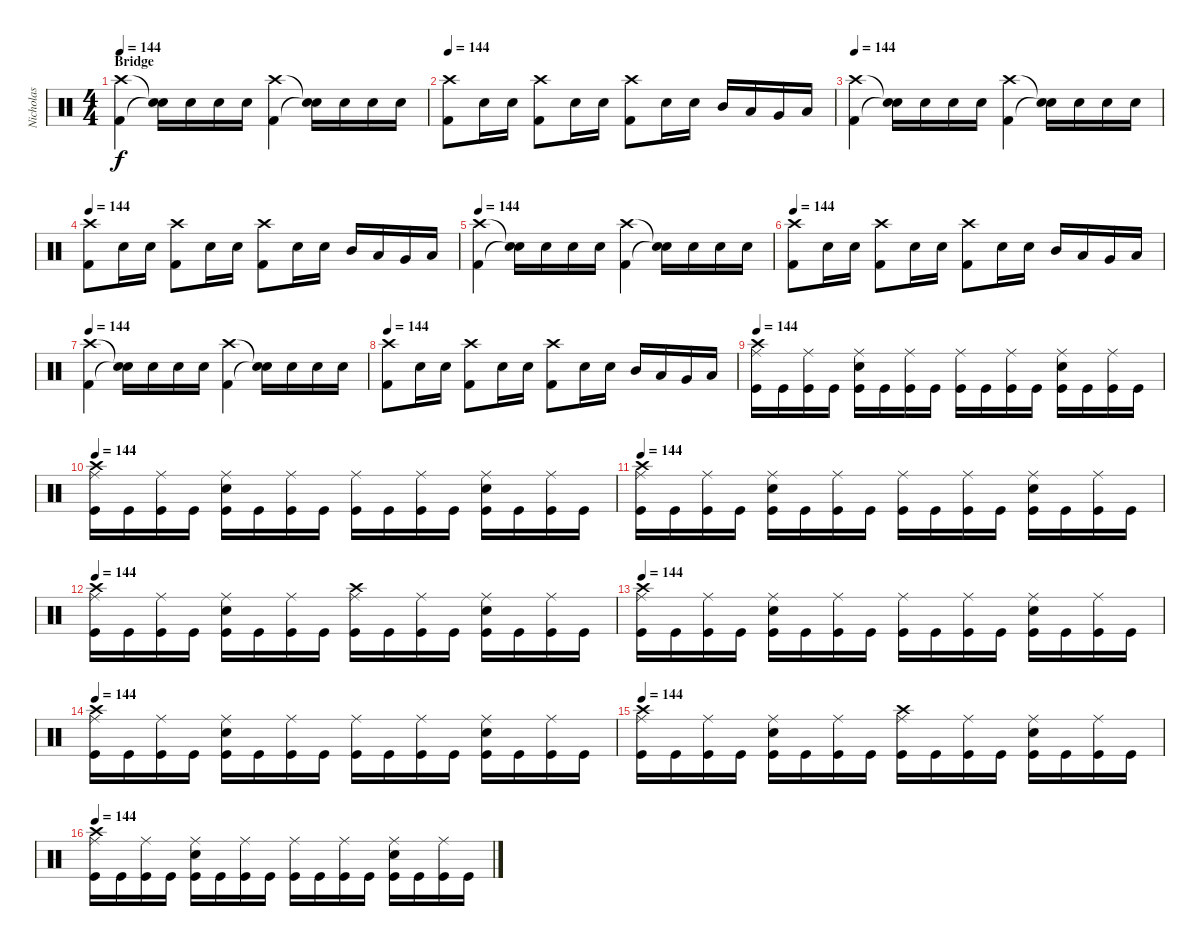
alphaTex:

\track ("Nicholas" "Nicholas") {instrument percussion}
\staff {score}
\articulation defaults
\ts (4 4)
\section ("" "Bridge")
\tempo 144
\clef neutral
\ks c
("Kick (hit) 2" "Crash high (hit)").4{dy f} ("Snare (hit)"{t} "Snare (hit)"{t}).16 "Snare (hit) 2".16 "Snare (hit) 2".16 "Snare (hit) 2".16 ("Kick (hit) 2" "Crash high (hit)").4 ("Snare (hit)"{t} "Snare (hit)"{t}).16 "Snare (hit) 2".16 "Snare (hit) 2".16 "Snare (hit) 2".16 |
\tempo 144
("Kick (hit) 2" "Crash high (hit)").8 "Snare (hit) 2".16 "Snare (hit) 2".16 ("Kick (hit) 2" "Crash high (hit)").8 "Snare (hit) 2".16 "Snare (hit) 2".16 ("Kick (hit) 2" "Crash high (hit)").8 "Snare (hit) 2".16 "Snare (hit) 2".16 "Mid Tom (hit)".16 "Low Tom (hit)".16 "Very Low Tom (hit)".16 "Low Floor Tom (hit)".16 |
\tempo 144
("Kick (hit) 2" "Crash high (hit)").4 ("Snare (hit)"{t} "Snare (hit)"{t}).16 "Snare (hit) 2".16 "Snare (hit) 2".16 "Snare (hit) 2".16 ("Kick (hit) 2" "Crash high (hit)").4 ("Snare (hit)"{t} "Snare (hit)"{t}).16 "Snare (hit) 2".16 "Snare (hit) 2".16 "Snare (hit) 2".16 |
\tempo 144
("Kick (hit) 2" "Crash high (hit)").8 "Snare (hit) 2".16 "Snare (hit) 2".16 ("Kick (hit) 2" "Crash high (hit)").8 "Snare (hit) 2".16 "Snare (hit) 2".16 ("Kick (hit) 2" "Crash high (hit)").8 "Snare (hit) 2".16 "Snare (hit) 2".16 "Mid Tom (hit)".16 "Low Tom (hit)".16 "Very Low Tom (hit)".16 "Low Floor Tom (hit)".16 |
\tempo 144
("Kick (hit) 2" "Crash high (hit)").4 ("Snare (hit)"{t} "Snare (hit)"{t}).16 "Snare (hit) 2".16 "Snare (hit) 2".16 "Snare (hit) 2".16 ("Kick (hit) 2" "Crash high (hit)").4 ("Snare (hit)"{t} "Snare (hit)"{t}).16 "Snare (hit) 2".16 "Snare (hit) 2".16 "Snare (hit) 2".16 |
\tempo 144
("Kick (hit) 2" "Crash high (hit)").8 "Snare (hit) 2".16 "Snare (hit) 2".16 ("Kick (hit) 2" "Crash high (hit)").8 "Snare (hit) 2".16 "Snare (hit) 2".16 ("Kick (hit) 2" "Crash high (hit)").8 "Snare (hit) 2".16 "Snare (hit) 2".16 "Mid Tom (hit)".16 "Low Tom (hit)".16 "Very Low Tom (hit)".16 "Low Floor Tom (hit)".16 |
\tempo 144
("Kick (hit) 2" "Crash high (hit)").4 ("Snare (hit)"{t} "Snare (hit)"{t}).16 "Snare (hit) 2".16 "Snare (hit) 2".16 "Snare (hit) 2".16 ("Kick (hit) 2" "Crash high (hit)").4 ("Snare (hit)"{t} "Snare (hit)"{t}).16 "Snare (hit) 2".16 "Snare (hit) 2".16 "Snare (hit) 2".16 |
\tempo 144
("Kick (hit) 2" "Crash high (hit)").8 "Snare (hit) 2".16 "Snare (hit) 2".16 ("Kick (hit) 2" "Crash high (hit)").8 "Snare (hit) 2".16 "Snare (hit) 2".16 ("Kick (hit) 2" "Crash high (hit)").8 "Snare (hit) 2".16 "Snare (hit) 2".16 "Mid Tom (hit)".16 "Low Tom (hit)".16 "Very Low Tom (hit)".16 "Low Floor Tom (hit)".16 |
\tempo 144
("Kick (hit)" "Ride (middle)" "Crash high (hit)").16 "Kick (hit)".16 ("Kick (hit)" "Ride (middle)").16 "Kick (hit)".16 ("Kick (hit)" "Snare (hit) 2" "Ride (middle)").16 "Kick (hit)".16 ("Kick (hit)" "Ride (middle)").16 "Kick (hit)".16 ("Kick (hit)" "Ride (middle)").16 "Kick (hit)".16 ("Kick (hit)" "Ride (middle)").16 "Kick (hit)".16 ("Kick (hit)" "Snare (hit) 2" "Ride (middle)").16 "Kick (hit)".16 ("Kick (hit)" "Ride (middle)").16 "Kick (hit)".16 |
\tempo 144
("Kick (hit)" "Ride (middle)" "Crash high (hit)").16 "Kick (hit)".16 ("Kick (hit)" "Ride (middle)").16 "Kick (hit)".16 ("Kick (hit)" "Snare (hit) 2" "Ride (middle)").16 "Kick (hit)".16 ("Kick (hit)" "Ride (middle)").16 "Kick (hit)".16 ("Kick (hit)" "Ride (middle)").16 "Kick (hit)".16 ("Kick (hit)" "Ride (middle)").16 "Kick (hit)".16 ("Kick (hit)" "Snare (hit) 2" "Ride (middle)").16 "Kick (hit)".16 ("Kick (hit)" "Ride (middle)").16 "Kick (hit)".16 |
\tempo 144
("Kick (hit)" "Ride (middle)" "Crash high (hit)").16 "Kick (hit)".16 ("Kick (hit)" "Ride (middle)").16 "Kick (hit)".16 ("Kick (hit)" "Snare (hit) 2" "Ride (middle)").16 "Kick (hit)".16 ("Kick (hit)" "Ride (middle)").16 "Kick (hit)".16 ("Kick (hit)" "Ride (middle)").16 "Kick (hit)".16 ("Kick (hit)" "Ride (middle)").16 "Kick (hit)".16 ("Kick (hit)" "Snare (hit) 2" "Ride (middle)").16 "Kick (hit)".16 ("Kick (hit)" "Ride (middle)").16 "Kick (hit)".16 |
\tempo 144
("Kick (hit)" "Ride (middle)" "Crash high (hit)").16 "Kick (hit)".16 ("Kick (hit)" "Ride (middle)").16 "Kick (hit)".16 ("Kick (hit)" "Snare (hit) 2" "Ride (middle)").16 "Kick (hit)".16 ("Kick (hit)" "Ride (middle)").16 "Kick (hit)".16 ("Kick (hit)" "Ride (middle)" "Crash high (hit)").16 "Kick (hit)".16 ("Kick (hit)" "Ride (middle)").16 "Kick (hit)".16 ("Kick (hit)" "Snare (hit) 2" "Ride (middle)").16 "Kick (hit)".16 ("Kick (hit)" "Ride (middle)").16 "Kick (hit)".16 |
\tempo 144
("Kick (hit)" "Ride (middle)" "Crash high (hit)").16 "Kick (hit)".16 ("Kick (hit)" "Ride (middle)").16 "Kick (hit)".16 ("Kick (hit)" "Snare (hit) 2" "Ride (middle)").16 "Kick (hit)".16 ("Kick (hit)" "Ride (middle)").16 "Kick (hit)".16 ("Kick (hit)" "Ride (middle)").16 "Kick (hit)".16 ("Kick (hit)" "Ride (middle)").16 "Kick (hit)".16 ("Kick (hit)" "Snare (hit) 2" "Ride (middle)").16 "Kick (hit)".16 ("Kick (hit)" "Ride (middle)").16 "Kick (hit)".16 |
\tempo 144
("Kick (hit)" "Ride (middle)" "Crash high (hit)").16 "Kick (hit)".16 ("Kick (hit)" "Ride (middle)").16 "Kick (hit)".16 ("Kick (hit)" "Snare (hit) 2" "Ride (middle)").16 "Kick (hit)".16 ("Kick (hit)" "Ride (middle)").16 "Kick (hit)".16 ("Kick (hit)" "Ride (middle)").16 "Kick (hit)".16 ("Kick (hit)" "Ride (middle)").16 "Kick (hit)".16 ("Kick (hit)" "Snare (hit) 2" "Ride (middle)").16 "Kick (hit)".16 ("Kick (hit)" "Ride (middle)").16 "Kick (hit)".16 |
\tempo 144
("Kick (hit)" "Ride (middle)" "Crash high (hit)").16 "Kick (hit)".16 ("Kick (hit)" "Ride (middle)").16 "Kick (hit)".16 ("Kick (hit)" "Snare (hit) 2" "Ride (middle)").16 "Kick (hit)".16 ("Kick (hit)" "Ride (middle)").16 "Kick (hit)".16 ("Kick (hit)" "Ride (middle)" "Crash high (hit)").16 "Kick (hit)".16 ("Kick (hit)" "Ride (middle)").16 "Kick (hit)".16 ("Kick (hit)" "Snare (hit) 2" "Ride (middle)").16 "Kick (hit)".16 ("Kick (hit)" "Ride (middle)").16 "Kick (hit)".16 |
\tempo 144
("Kick (hit)" "Ride (middle)" "Crash high (hit)").16 "Kick (hit)".16 ("Kick (hit)" "Ride (middle)").16 "Kick (hit)".16 ("Kick (hit)" "Snare (hit) 2" "Ride (middle)").16 "Kick (hit)".16 ("Kick (hit)" "Ride (middle)").16 "Kick (hit)".16 ("Kick (hit)" "Ride (middle)").16 "Kick (hit)".16 ("Kick (hit)" "Ride (middle)").16 "Kick (hit)".16 ("Kick (hit)" "Snare (hit) 2" "Ride (middle)").16 "Kick (hit)".16 ("Kick (hit)" "Ride (middle)").16 "Kick (hit)".16
